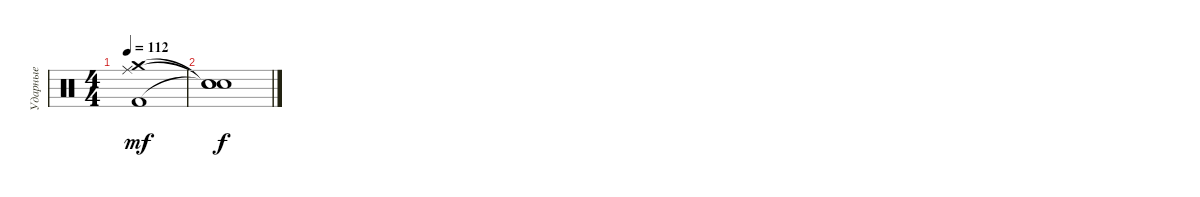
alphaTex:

\track ("Ударные" "Ударные") {instrument percussion}
\staff {score}
\articulation defaults
\ts (4 4)
\tempo 112
\clef neutral
\ks c
("Crash medium (hit)" "Ride (middle)" "Kick (hit) 2").1{dy mf} |
("Snare (hit)"{t} "Snare (hit)"{t} "Snare (hit)"{t}).1{dy f}
